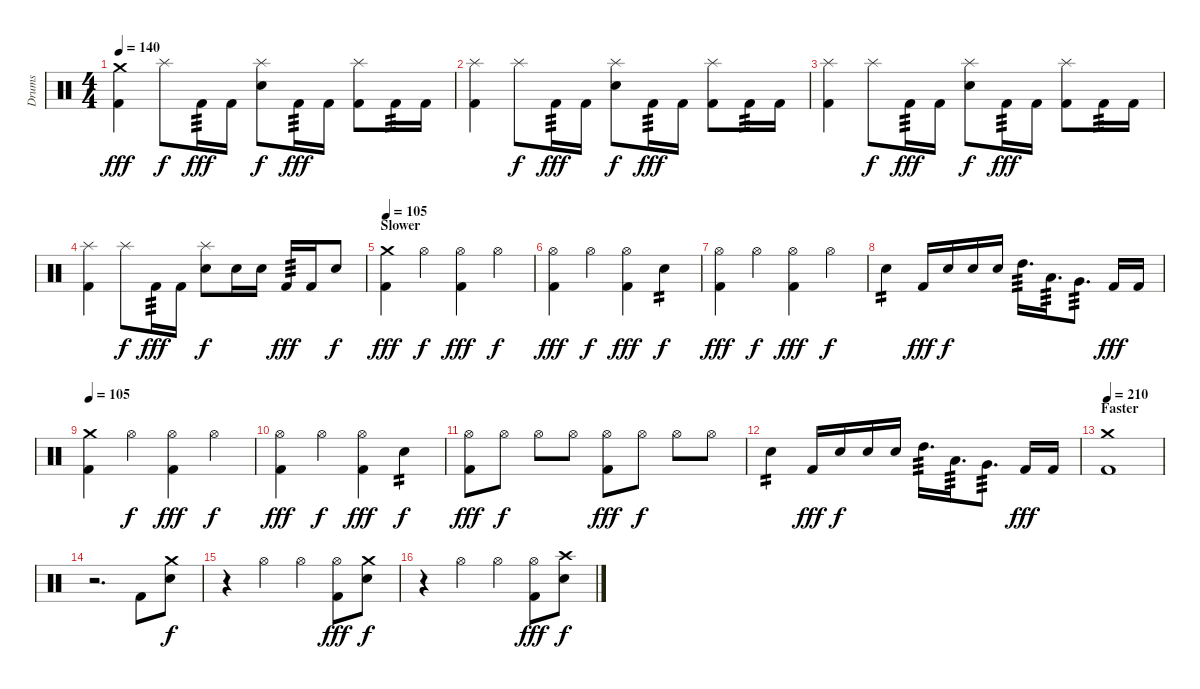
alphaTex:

\track ("Drums" "Drums") {instrument percussion}
\staff {score}
\articulation defaults
\ts (4 4)
\tempo 140
\clef neutral
\ks c
("Crash medium (hit)" "Kick (hit) 2").4{dy fff} "Splash (hit)".8{dy f} "Kick (hit) 2".16{tp 3 dy fff} "Kick (hit) 2".16 ("Splash (hit)" "Electric Snare (hit)").8{dy f} "Kick (hit) 2".16{tp 3 dy fff} "Kick (hit) 2".16 ("Splash (hit)" "Kick (hit) 2").8 "Kick (hit) 2".16{tp 3} "Kick (hit) 2".16 |
("Splash (hit)" "Kick (hit) 2").4 "Splash (hit)".8{dy f} "Kick (hit) 2".16{tp 3 dy fff} "Kick (hit) 2".16 ("Splash (hit)" "Electric Snare (hit)").8{dy f} "Kick (hit) 2".16{tp 3 dy fff} "Kick (hit) 2".16 ("Splash (hit)" "Kick (hit) 2").8 "Kick (hit) 2".16{tp 3} "Kick (hit) 2".16 |
("Splash (hit)" "Kick (hit) 2").4 "Splash (hit)".8{dy f} "Kick (hit) 2".16{tp 3 dy fff} "Kick (hit) 2".16 ("Splash (hit)" "Electric Snare (hit)").8{dy f} "Kick (hit) 2".16{tp 3 dy fff} "Kick (hit) 2".16 ("Splash (hit)" "Kick (hit) 2").8 "Kick (hit) 2".16{tp 3} "Kick (hit) 2".16 |
("Splash (hit)" "Kick (hit) 2").4 "Splash (hit)".8{dy f} "Kick (hit) 2".16{tp 3 dy fff} "Kick (hit) 2".16 ("Splash (hit)" "Electric Snare (hit)").8{dy f} "Electric Snare (hit)".16 "Electric Snare (hit)".16 "Kick (hit) 2".16{tp 3 dy fff} "Kick (hit) 2".16 "Electric Snare (hit)".8{dy f} |
\section ("" "Slower")
\tempo 105
("Crash medium (hit)" "Kick (hit) 2").4{dy fff} "Hi-Hat (open)".4{dy f} ("Hi-Hat (open)" "Kick (hit) 2").4{dy fff} "Hi-Hat (open)".4{dy f} |
("Hi-Hat (open)" "Kick (hit) 2").4{dy fff} "Hi-Hat (open)".4{dy f} ("Hi-Hat (open)" "Kick (hit) 2").4{dy fff} "Electric Snare (hit)".4{tp 2 dy f} |
("Hi-Hat (open)" "Kick (hit) 2").4{dy fff} "Hi-Hat (open)".4{dy f} ("Hi-Hat (open)" "Kick (hit) 2").4{dy fff} "Hi-Hat (open)".4{dy f} |
"Electric Snare (hit)".4{tp 2} "Kick (hit) 2".16{dy fff} "Electric Snare (hit)".16{dy f} "Electric Snare (hit)".16 "Electric Snare (hit)".16 "High Tom (hit)".16{d tp 3} "Low Tom (hit)".16{d tp 3} "Very Low Tom (hit)".8{d tp 3} "Kick (hit) 2".16{dy fff} "Kick (hit) 2".16 |
\tempo 105
("Crash medium (hit)" "Kick (hit) 2").4 "Hi-Hat (open)".4{dy f} ("Hi-Hat (open)" "Kick (hit) 2").4{dy fff} "Hi-Hat (open)".4{dy f} |
("Hi-Hat (open)" "Kick (hit) 2").4{dy fff} "Hi-Hat (open)".4{dy f} ("Hi-Hat (open)" "Kick (hit) 2").4{dy fff} "Electric Snare (hit)".4{tp 2 dy f} |
("Hi-Hat (open)" "Kick (hit) 2").8{dy fff} "Hi-Hat (open)".8{dy f} "Hi-Hat (open)".8 "Hi-Hat (open)".8 ("Hi-Hat (open)" "Kick (hit) 2").8{dy fff} "Hi-Hat (open)".8{dy f} "Hi-Hat (open)".8 "Hi-Hat (open)".8 |
"Electric Snare (hit)".4{tp 2} "Kick (hit) 2".16{dy fff} "Electric Snare (hit)".16{dy f} "Electric Snare (hit)".16 "Electric Snare (hit)".16 "High Tom (hit)".16{d tp 3} "Low Tom (hit)".16{d tp 3} "Very Low Tom (hit)".8{d tp 3} "Kick (hit) 2".16{dy fff} "Kick (hit) 2".16 |
\section ("" "Faster")
\tempo 210
("Crash medium (hit)" "Kick (hit) 2").1 |
r.2{d} "Kick (hit) 2".8 ("Crash medium (hit)" "Electric Snare (hit)").8{dy f} |
r.4 "Hi-Hat (open)".4 "Hi-Hat (open)".4 ("Hi-Hat (open)" "Kick (hit) 2").8{dy fff} ("Crash medium (hit)" "Electric Snare (hit)").8{dy f} |
r.4 "Hi-Hat (open)".4 "Hi-Hat (open)".4 ("Hi-Hat (open)" "Kick (hit) 2").8{dy fff} ("Crash high (hit)" "Electric Snare (hit)").8{dy f}
